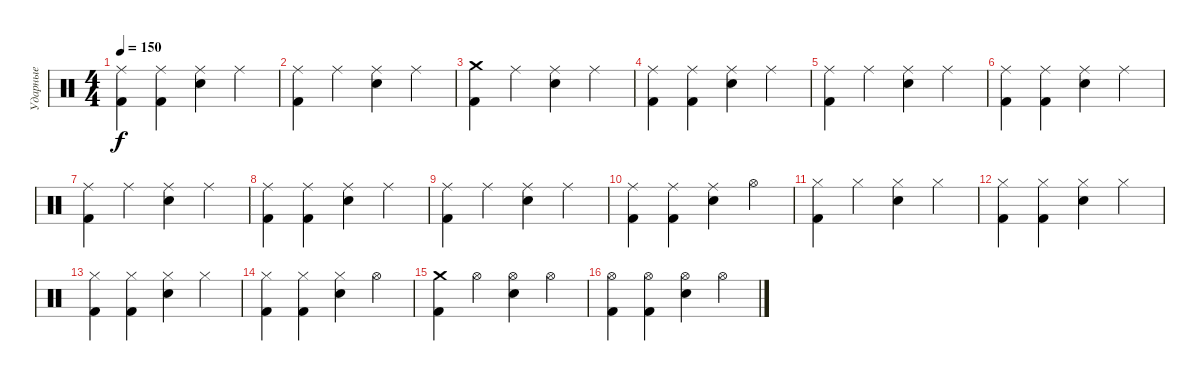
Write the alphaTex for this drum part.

\track ("Ударные" "Ударные") {instrument percussion}
\staff {score}
\articulation defaults
\ts (4 4)
\tempo 150
\clef neutral
\ks c
("Ride (middle)" "Kick (hit) 2").4{dy f} ("Ride (middle)" "Kick (hit) 2").4 ("Ride (middle)" "Electric Snare (hit)").4 "Ride (middle)".4 |
("Ride (middle)" "Kick (hit) 2").4 "Ride (middle)".4 ("Ride (middle)" "Electric Snare (hit)").4 "Ride (middle)".4 |
("Crash medium (hit)" "Kick (hit) 2").4 "Ride (middle)".4 ("Ride (middle)" "Electric Snare (hit)").4 "Ride (middle)".4 |
("Ride (middle)" "Kick (hit) 2").4 ("Ride (middle)" "Kick (hit) 2").4 ("Ride (middle)" "Electric Snare (hit)").4 "Ride (middle)".4 |
("Ride (middle)" "Kick (hit) 2").4 "Ride (middle)".4 ("Ride (middle)" "Electric Snare (hit)").4 "Ride (middle)".4 |
("Ride (middle)" "Kick (hit) 2").4 ("Ride (middle)" "Kick (hit) 2").4 ("Ride (middle)" "Electric Snare (hit)").4 "Ride (middle)".4 |
("Ride (middle)" "Kick (hit) 2").4 "Ride (middle)".4 ("Ride (middle)" "Electric Snare (hit)").4 "Ride (middle)".4 |
("Ride (middle)" "Kick (hit) 2").4 ("Ride (middle)" "Kick (hit) 2").4 ("Ride (middle)" "Electric Snare (hit)").4 "Ride (middle)".4 |
("Ride (middle)" "Kick (hit) 2").4 "Ride (middle)".4 ("Ride (middle)" "Electric Snare (hit)").4 "Ride (middle)".4 |
("Ride (middle)" "Kick (hit) 2").4 ("Ride (middle)" "Kick (hit) 2").4 ("Ride (middle)" "Electric Snare (hit)").4 "Hi-Hat (open)".4 |
("Hi-Hat (closed)" "Kick (hit) 2").4 "Hi-Hat (closed)".4 ("Hi-Hat (closed)" "Electric Snare (hit)").4 "Hi-Hat (closed)".4 |
("Hi-Hat (closed)" "Kick (hit) 2").4 ("Hi-Hat (closed)" "Kick (hit) 2").4 ("Hi-Hat (closed)" "Electric Snare (hit)").4 "Hi-Hat (closed)".4 |
("Hi-Hat (closed)" "Kick (hit) 2").4 ("Hi-Hat (closed)" "Kick (hit) 2").4 ("Hi-Hat (closed)" "Electric Snare (hit)").4 "Hi-Hat (closed)".4 |
("Hi-Hat (closed)" "Kick (hit) 2").4 ("Hi-Hat (closed)" "Kick (hit) 2").4 ("Hi-Hat (closed)" "Electric Snare (hit)").4 "Hi-Hat (open)".4 |
("Crash medium (hit)" "Kick (hit) 2").4 "Hi-Hat (open)".4 ("Hi-Hat (open)" "Electric Snare (hit)").4 "Hi-Hat (open)".4 |
("Hi-Hat (open)" "Kick (hit) 2").4 ("Hi-Hat (open)" "Kick (hit) 2").4 ("Hi-Hat (open)" "Electric Snare (hit)").4 "Hi-Hat (open)".4
